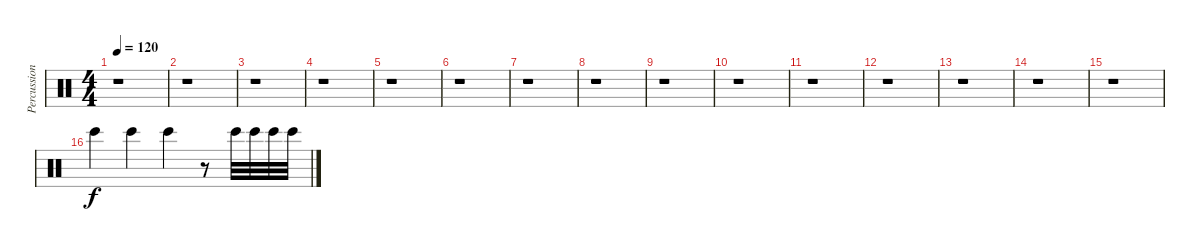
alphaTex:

\track ("Percussions" "Percussion") {instrument percussion}
\staff {score}
\articulation defaults
\ts (4 4)
\tempo 120
\clef neutral
\ks c
r.1{dy f} |
r.1 |
r.1 |
r.1 |
r.1 |
r.1 |
r.1 |
r.1 |
r.1 |
r.1 |
r.1 |
r.1 |
r.1 |
r.1 |
r.1 |
"Bongo High (hit)".4 "Bongo High (hit)".4 "Bongo High (hit)".4 r.8 "Bongo High (hit)".32 "Bongo High (hit)".32 "Bongo High (hit)".32 "Bongo High (hit)".32
